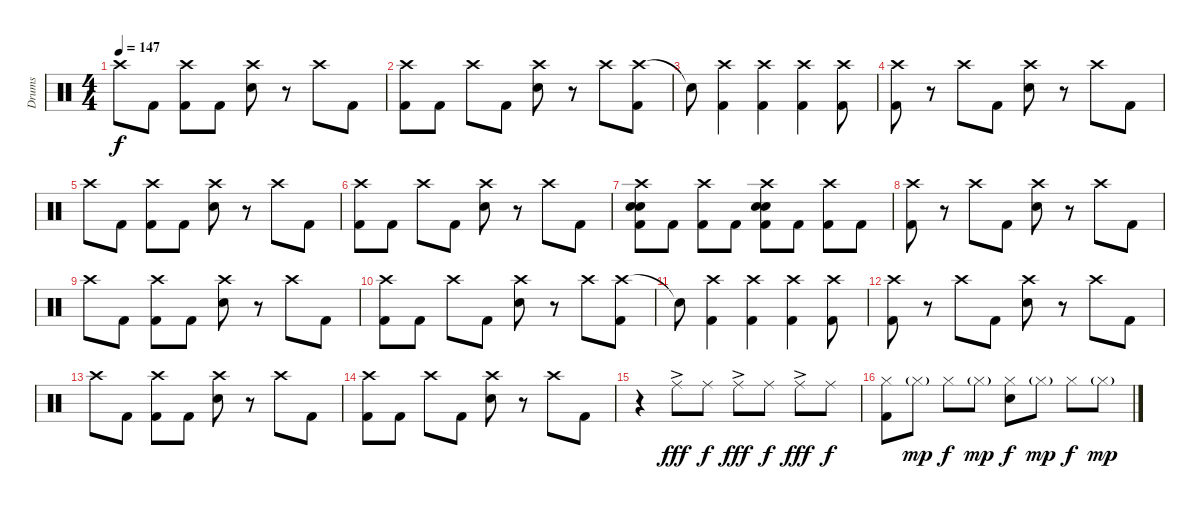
\track ("Drums" "Drums") {instrument percussion}
\staff {score}
\articulation defaults
\ts (4 4)
\tempo 147
\clef neutral
\ks c "Crash high (hit)".8{dy f} "Kick (hit) 2".8
("Crash high (hit)" "Kick (hit) 2").8 "Kick (hit) 2".8 ("Crash high (hit)" "Electric Snare (hit)").8 r.8 "Crash high (hit)".8 "Kick (hit) 2".8 |
("Crash high (hit)" "Kick (hit) 2").8 "Kick (hit) 2".8 "Crash high (hit)".8 "Kick (hit) 2".8 ("Crash high (hit)" "Electric Snare (hit)").8 r.8 "Crash high (hit)".8 ("Crash high (hit)" "Kick (hit) 2").8 |
"Snare (hit)"{t}.8 ("Crash high (hit)" "Kick (hit) 2").4 ("Crash high (hit)" "Kick (hit) 2").4 ("Crash high (hit)" "Kick (hit) 2").4 ("Crash high (hit)" "Kick (hit) 2").8 |
("Crash high (hit)" "Kick (hit) 2").8 r.8 "Crash high (hit)".8 "Kick (hit) 2".8 ("Crash high (hit)" "Electric Snare (hit)").8 r.8 "Crash high (hit)".8 "Kick (hit) 2".8 |
"Crash high (hit)".8 "Kick (hit) 2".8 ("Crash high (hit)" "Kick (hit) 2").8 "Kick (hit) 2".8 ("Crash high (hit)" "Electric Snare (hit)").8 r.8 "Crash high (hit)".8 "Kick (hit) 2".8 |
("Crash high (hit)" "Kick (hit) 2").8 "Kick (hit) 2".8 "Crash high (hit)".8 "Kick (hit) 2".8 ("Crash high (hit)" "Electric Snare (hit)").8 r.8 "Crash high (hit)".8 "Kick (hit) 2".8 |
("Crash high (hit)" "Electric Snare (hit)" "Snare (hit) 2" "Kick (hit) 2").8 "Kick (hit) 2".8 ("Crash high (hit)" "Kick (hit) 2").8 "Kick (hit) 2".8 ("Crash high (hit)" "Electric Snare (hit)" "Snare (hit) 2" "Kick (hit) 2").8 "Kick (hit) 2".8 ("Crash high (hit)" "Kick (hit) 2").8 "Kick (hit) 2".8 |
("Crash high (hit)" "Kick (hit) 2").8 r.8 "Crash high (hit)".8 "Kick (hit) 2".8 ("Crash high (hit)" "Electric Snare (hit)").8 r.8 "Crash high (hit)".8 "Kick (hit) 2".8 |
"Crash high (hit)".8 "Kick (hit) 2".8 ("Crash high (hit)" "Kick (hit) 2").8 "Kick (hit) 2".8 ("Crash high (hit)" "Electric Snare (hit)").8 r.8 "Crash high (hit)".8 "Kick (hit) 2".8 |
("Crash high (hit)" "Kick (hit) 2").8 "Kick (hit) 2".8 "Crash high (hit)".8 "Kick (hit) 2".8 ("Crash high (hit)" "Electric Snare (hit)").8 r.8 "Crash high (hit)".8 ("Crash high (hit)" "Kick (hit) 2").8 |
"Snare (hit)"{t}.8 ("Crash high (hit)" "Kick (hit) 2").4 ("Crash high (hit)" "Kick (hit) 2").4 ("Crash high (hit)" "Kick (hit) 2").4 ("Crash high (hit)" "Kick (hit) 2").8 |
("Crash high (hit)" "Kick (hit) 2").8 r.8 "Crash high (hit)".8 "Kick (hit) 2".8 ("Crash high (hit)" "Electric Snare (hit)").8 r.8 "Crash high (hit)".8 "Kick (hit) 2".8 |
"Crash high (hit)".8 "Kick (hit) 2".8 ("Crash high (hit)" "Kick (hit) 2").8 "Kick (hit) 2".8 ("Crash high (hit)" "Electric Snare (hit)").8 r.8 "Crash high (hit)".8 "Kick (hit) 2".8 |
("Crash high (hit)" "Kick (hit) 2").8 "Kick (hit) 2".8 "Crash high (hit)".8 "Kick (hit) 2".8 ("Crash high (hit)" "Electric Snare (hit)").8 r.8 "Crash high (hit)".8 "Kick (hit) 2".8 |
r.4 "Ride (middle)"{ac}.8{dy fff} "Ride (middle)".8{dy f} "Ride (middle)"{ac}.8{dy fff} "Ride (middle)".8{dy f} "Ride (middle)"{ac}.8{dy fff} "Ride (middle)".8{dy f} |
("Hi-Hat (closed)" "Kick (hit) 2").8 "Hi-Hat (closed)"{g}.8{dy mp} "Hi-Hat (closed)".8{dy f} "Hi-Hat (closed)"{g}.8{dy mp} ("Hi-Hat (closed)" "Snare (hit) 2").8{dy f} "Hi-Hat (closed)"{g}.8{dy mp} "Hi-Hat (closed)".8{dy f} "Hi-Hat (closed)"{g}.8{dy mp}
